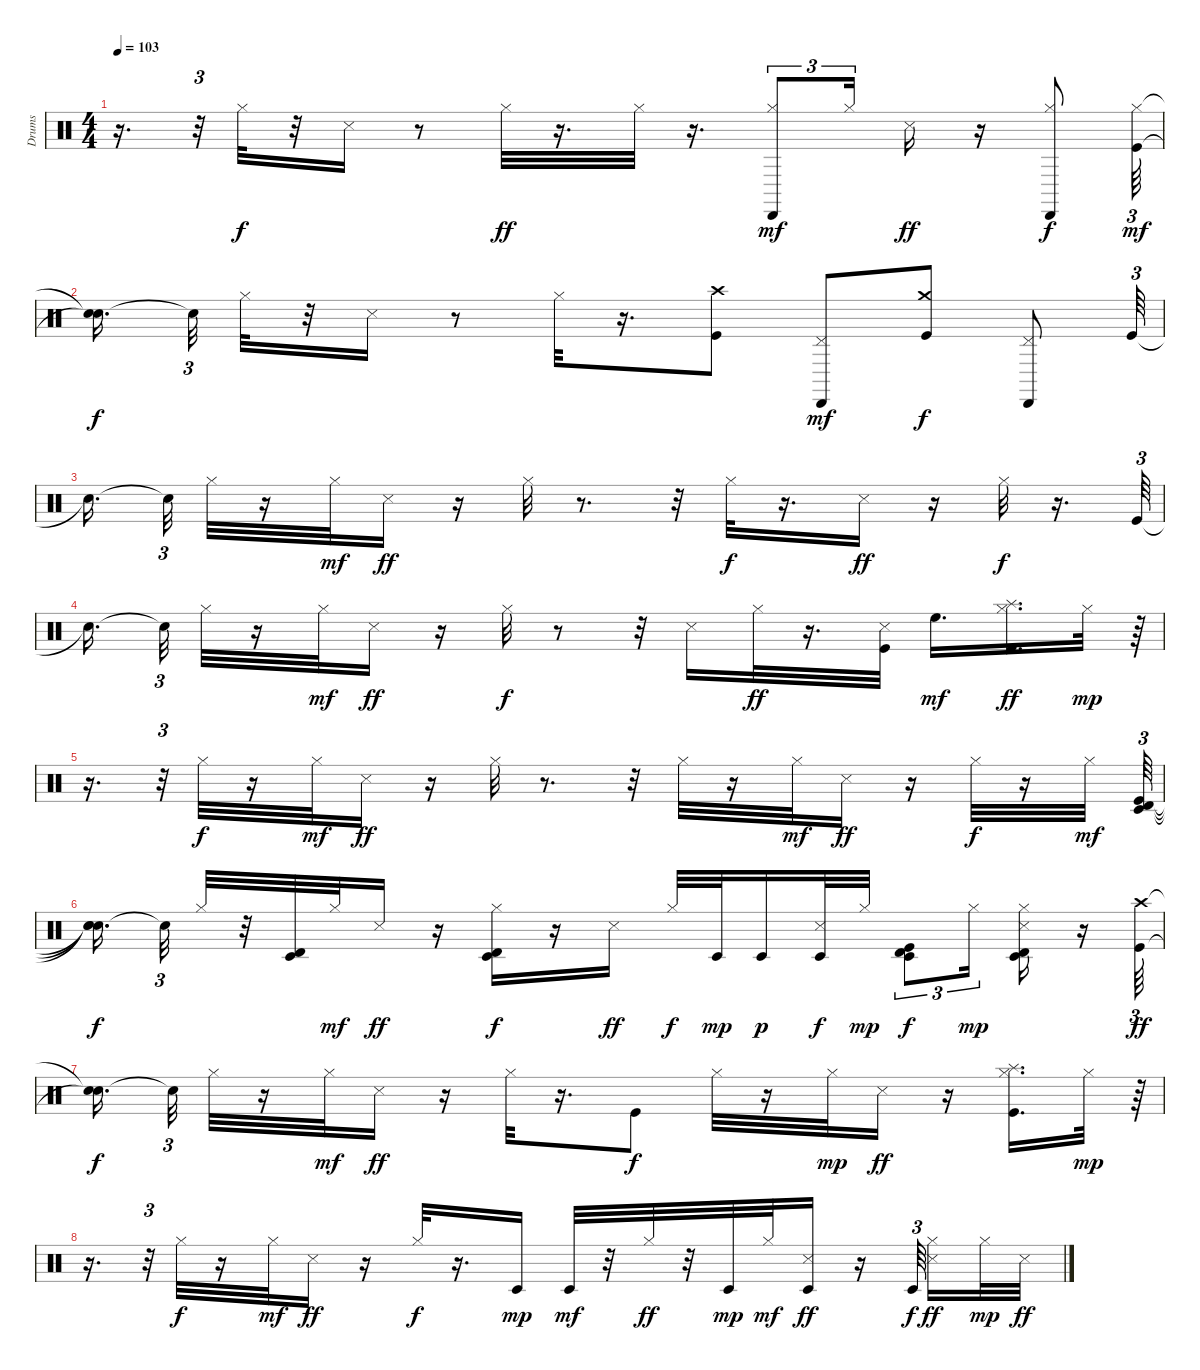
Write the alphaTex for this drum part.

\track ("Drums" "Drums") {instrument percussion}
\staff {score}
\articulation defaults
\ts (4 4)
\tempo 103
\clef neutral
\ks c
r.16{d dy mp} r.32{tu (3 2)} "Hi-Hat (closed)".32{dy f} r.32 "Snare (side stick) 3".16 r.8 "Hi-Hat (closed)".32{dy ff} r.16{d} "Hi-Hat (closed)".32 r.16{d} ("Cabasa (hit)" "Hi-Hat (closed)").8{tu (3 2) dy mf} "Hi-Hat (closed)".16{tu (3 2)} "Snare (side stick) 3".16{dy ff} r.16 ("Hi-Hat (closed)" "Cabasa (hit)").8{dy f} ("Kick (hit)" "Hi-Hat (closed)").64{tu (3 2) dy mf} |
("Snare (hit)"{t} "Snare (hit)"{t}).16{d dy f beam splitsecondary} "Snare (hit)"{t}.32{tu (3 2)} "Hi-Hat (closed)".32 r.32 "Snare (side stick) 3".16 r.8 "Hi-Hat (closed)".32 r.16{d} ("Crash high (hit)" "Kick (hit)").8 ("Cabasa (hit)" "Pedal Hi-Hat (hit)").8{dy mf} ("Crash medium (hit)" "Kick (hit)").8{dy f} ("Pedal Hi-Hat (hit)" "Cabasa (hit)").8 "Kick (hit)".64{tu (3 2)} |
"Snare (hit)"{t}.16{d beam splitsecondary} "Snare (hit)"{t}.32{tu (3 2)} "Hi-Hat (closed)".32 r.16 "Hi-Hat (closed)".32{dy mf} "Snare (side stick) 3".16{dy ff} r.16 "Hi-Hat (closed)".32 r.8{d} r.32 "Hi-Hat (closed)".32{dy f} r.16{d} "Snare (side stick) 3".16{dy ff} r.16 "Hi-Hat (closed)".32{dy f} r.16{d} "Kick (hit)".64{tu (3 2)} |
"Snare (hit)"{t}.16{d beam splitsecondary} "Snare (hit)"{t}.32{tu (3 2)} "Hi-Hat (closed)".32 r.16 "Hi-Hat (closed)".32{dy mf} "Snare (side stick) 3".16{dy ff} r.16 "Hi-Hat (closed)".32{dy f} r.8 r.32 "Snare (side stick) 3".16 "Hi-Hat (closed)".32{dy ff} r.16{d} ("Kick (hit)" "Snare (side stick) 3").32 "High Floor Tom (hit)".16{d dy mf} ("Splash (hit)" "Kick (hit)" "Hi-Hat (closed)").16{d dy ff} "Hi-Hat (closed)".32{dy mp} r.64{tu (3 2)} |
r.16{d} r.32{tu (3 2)} "Hi-Hat (closed)".32{dy f} r.16 "Hi-Hat (closed)".32{dy mf} "Snare (side stick) 3".16{dy ff} r.16 "Hi-Hat (closed)".32 r.8{d} r.32 "Hi-Hat (closed)".32 r.16 "Hi-Hat (closed)".32{dy mf} "Snare (side stick) 3".16{dy ff} r.16 "Hi-Hat (closed)".32{dy f} r.16 "Hi-Hat (closed)".32{dy mf} ("Timbale low (hit)" "Timbale high (hit)" "Kick (hit)").64{tu (3 2)} |
("Snare (hit)"{t} "Snare (hit)"{t} "Snare (hit)"{t}).16{d dy f beam splitsecondary} "Snare (hit)"{t}.32{tu (3 2)} "Hi-Hat (closed)".32 r.32 ("Timbale low (hit)" "Timbale high (hit)").32 "Hi-Hat (closed)".32{dy mf} "Snare (side stick) 3".16{dy ff} r.16 ("Timbale high (hit)" "Timbale low (hit)" "Hi-Hat (closed)").16{dy f} r.16 "Snare (side stick) 3".16{dy ff} "Hi-Hat (closed)".32{dy f} "Timbale low (hit)".32{dy mp} "Timbale low (hit)".16{dy p} ("Timbale low (hit)" "Snare (side stick) 3").32{dy f} "Hi-Hat (closed)".32{dy mp} ("Timbale high (hit)" "Timbale low (hit)" "Kick (hit)").8{tu (3 2) dy f} "Hi-Hat (closed)".16{tu (3 2) dy mp} ("Snare (side stick) 3" "Hi-Hat (closed)" "Timbale high (hit)" "Timbale low (hit)").16 r.16 ("Crash high (hit)" "Kick (hit)").64{tu (3 2) dy ff} |
("Snare (hit)"{t} "Snare (hit)"{t}).16{d dy f beam splitsecondary} "Snare (hit)"{t}.32{tu (3 2)} "Hi-Hat (closed)".32 r.16 "Hi-Hat (closed)".32{dy mf} "Snare (side stick) 3".16{dy ff} r.16 "Hi-Hat (closed)".32 r.16{d} "Kick (hit)".8{dy f} "Hi-Hat (closed)".32 r.16 "Hi-Hat (closed)".32{dy mp} "Snare (side stick) 3".16{dy ff} r.16 ("Splash (hit)" "Kick (hit)" "Hi-Hat (closed)").16{d} "Hi-Hat (closed)".32{dy mp} r.64{tu (3 2)} |
r.16{d} r.32{tu (3 2)} "Hi-Hat (closed)".32{dy f} r.16 "Hi-Hat (closed)".32{dy mf} "Snare (side stick) 3".16{dy ff} r.16 "Hi-Hat (closed)".32{dy f} r.16{d} "Timbale low (hit)".16{dy mp} "Timbale low (hit)".32{dy mf} r.32 "Hi-Hat (closed)".32{dy ff} r.32 "Timbale low (hit)".32{dy mp} "Hi-Hat (closed)".32{dy mf} ("Timbale low (hit)" "Snare (side stick) 3").16{dy ff} r.16 "Timbale low (hit)".64{tu (3 2) dy f beam splitsecondary} ("Snare (side stick) 3" "Hi-Hat (closed)").16{dy ff} "Hi-Hat (closed)".32{dy mp} "Snare (side stick) 3".32{dy ff}
